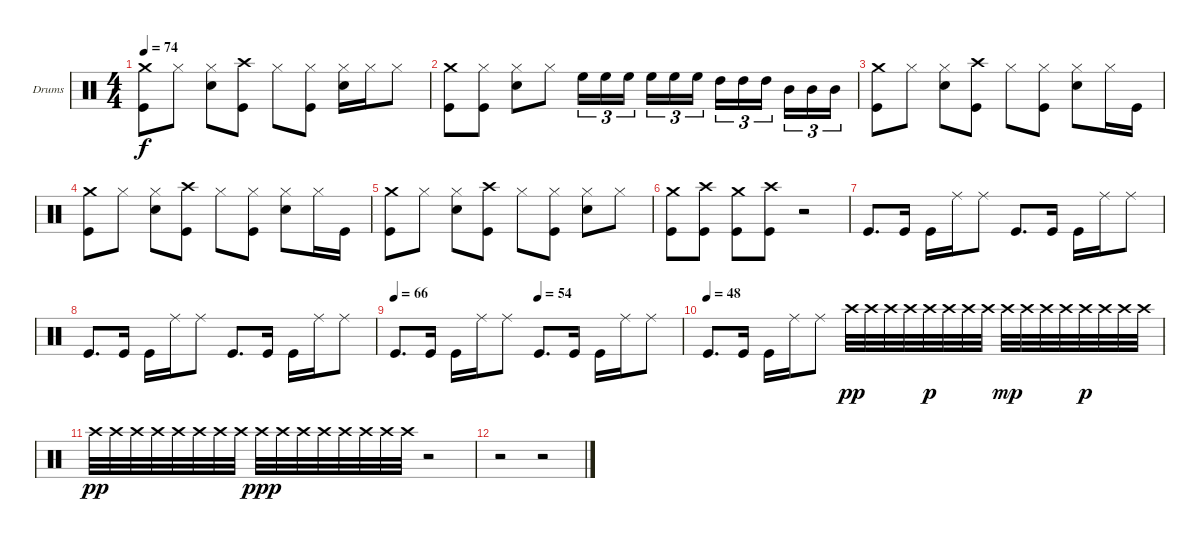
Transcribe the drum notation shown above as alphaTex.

\bracketExtendMode groupsimilarinstruments
\firstSystemTrackNameOrientation horizontal
\otherSystemsTrackNameOrientation horizontal
\track ("Drumkit" "Drums") {instrument percussion}
\staff {score}
\articulation defaults
\ts (4 4)
\tempo 74
\clef neutral
\ks c
("Crash medium (hit)" "Kick (hit)").8{dy f} "Hi-Hat (closed)".8 ("Hi-Hat (closed)" "Snare (hit) 2").8 ("Crash high (hit)" "Kick (hit)").8 "Hi-Hat (closed)".8 ("Hi-Hat (closed)" "Kick (hit)").8 ("Hi-Hat (closed)" "Snare (hit) 2").16 "Hi-Hat (closed)".16 "Hi-Hat (closed)".8 |
("Crash medium (hit)" "Kick (hit)").8 ("Hi-Hat (closed)" "Kick (hit)").8 ("Hi-Hat (closed)" "Snare (hit) 2").8 "Hi-Hat (closed)".8 "High Floor Tom (hit)".16{tu (3 2)} "High Floor Tom (hit)".16{tu (3 2)} "High Floor Tom (hit)".16{tu (3 2)} "High Floor Tom (hit)".16{tu (3 2)} "High Floor Tom (hit)".16{tu (3 2)} "High Floor Tom (hit)".16{tu (3 2)} "High Tom (hit)".16{tu (3 2)} "High Tom (hit)".16{tu (3 2)} "High Tom (hit)".16{tu (3 2)} "Mid Tom (hit)".16{tu (3 2)} "Mid Tom (hit)".16{tu (3 2)} "Mid Tom (hit)".16{tu (3 2)} |
("Crash medium (hit)" "Kick (hit)").8 "Hi-Hat (closed)".8 ("Hi-Hat (closed)" "Snare (hit) 2").8 ("Crash high (hit)" "Kick (hit)").8 "Hi-Hat (closed)".8 ("Hi-Hat (closed)" "Kick (hit)").8 ("Hi-Hat (closed)" "Snare (hit) 2").8 "Hi-Hat (closed)".16 "Kick (hit)".16 |
("Crash medium (hit)" "Kick (hit)").8 "Hi-Hat (closed)".8 ("Hi-Hat (closed)" "Snare (hit) 2").8 ("Crash high (hit)" "Kick (hit)").8 "Hi-Hat (closed)".8 ("Hi-Hat (closed)" "Kick (hit)").8 ("Hi-Hat (closed)" "Snare (hit) 2").8 "Hi-Hat (closed)".16 "Kick (hit)".16 |
("Crash medium (hit)" "Kick (hit)").8 "Hi-Hat (closed)".8 ("Hi-Hat (closed)" "Snare (hit) 2").8 ("Crash high (hit)" "Kick (hit)").8 "Hi-Hat (closed)".8 ("Hi-Hat (closed)" "Kick (hit)").8 ("Hi-Hat (closed)" "Snare (hit) 2").8 "Hi-Hat (closed)".8 |
("Crash medium (hit)" "Kick (hit)").8 ("Crash high (hit)" "Kick (hit)").8 ("Crash medium (hit)" "Kick (hit)").8 ("Crash high (hit)" "Kick (hit)").8 r.2 |
"Kick (hit)".8{d} "Kick (hit)".16 "Kick (hit)".16 "Ride (middle)".16 "Ride (middle)".8 "Kick (hit)".8{d} "Kick (hit)".16 "Kick (hit)".16 "Ride (middle)".16 "Ride (middle)".8 |
"Kick (hit)".8{d} "Kick (hit)".16 "Kick (hit)".16 "Ride (middle)".16 "Ride (middle)".8 "Kick (hit)".8{d} "Kick (hit)".16 "Kick (hit)".16 "Ride (middle)".16 "Ride (middle)".8 |
\tempo 66
\tempo (54 0.5)
"Kick (hit)".8{d} "Kick (hit)".16 "Kick (hit)".16 "Ride (middle)".16 "Ride (middle)".8 "Kick (hit)".8{d} "Kick (hit)".16 "Kick (hit)".16 "Ride (middle)".16 "Ride (middle)".8 |
\tempo (48)
"Kick (hit)".8{d} "Kick (hit)".16 "Kick (hit)".16 "Ride (middle)".16 "Ride (middle)".8 "Crash high (hit)".32{dy pp} "Crash high (hit)".32 "Crash high (hit)".32 "Crash high (hit)".32 "Crash high (hit)".32{dy p} "Crash high (hit)".32 "Crash high (hit)".32 "Crash high (hit)".32 "Crash high (hit)".32{dy mp} "Crash high (hit)".32 "Crash high (hit)".32 "Crash high (hit)".32 "Crash high (hit)".32{dy p} "Crash high (hit)".32 "Crash high (hit)".32 "Crash high (hit)".32 |
"Crash high (hit)".32{dy pp} "Crash high (hit)".32 "Crash high (hit)".32 "Crash high (hit)".32 "Crash high (hit)".32 "Crash high (hit)".32 "Crash high (hit)".32 "Crash high (hit)".32 "Crash high (hit)".32{dy ppp} "Crash high (hit)".32 "Crash high (hit)".32 "Crash high (hit)".32 "Crash high (hit)".32 "Crash high (hit)".32 "Crash high (hit)".32 "Crash high (hit)".32 r.2 |
r.2 r.2
